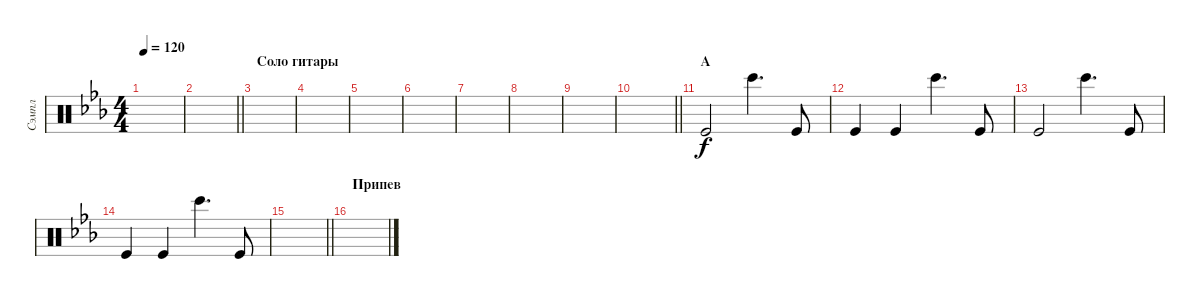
\track ("Сэмпл" "Сэмпл") {instrument percussion}
\staff {score}
\articulation defaults
\ts (4 4)
\tempo 120
\clef neutral
\ks cminor
|
\barLineRight lightlight
|
\section ("" "Соло гитары")
|
|
|
|
|
|
|
\barLineRight lightlight
|
\section ("" "А")
"Kick (hit)".2 "Bongo High (hit)".4{d} "Kick (hit)".8 |
"Kick (hit)".4 "Kick (hit)".4 "Bongo High (hit)".4{d} "Kick (hit)".8 |
"Kick (hit)".2 "Bongo High (hit)".4{d} "Kick (hit)".8 |
"Kick (hit)".4 "Kick (hit)".4 "Bongo High (hit)".4{d} "Kick (hit)".8 |
\barLineRight lightlight
|
\section ("" "Припев")
